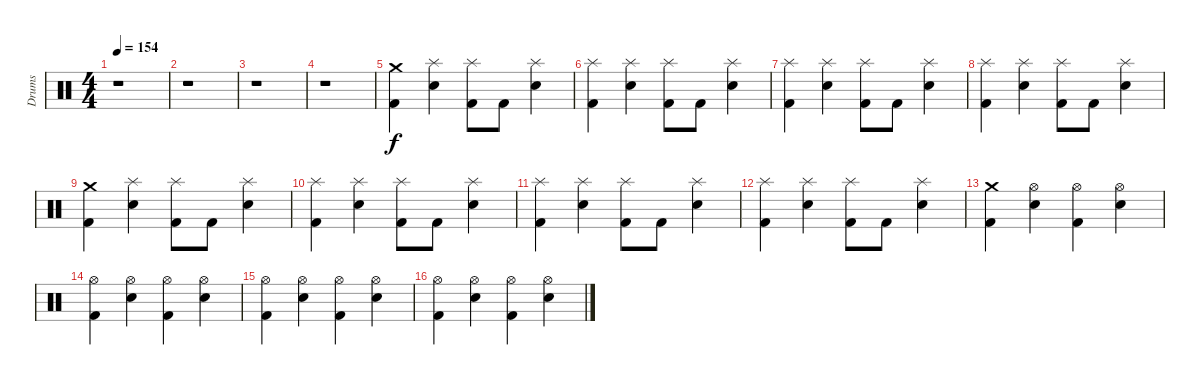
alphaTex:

\track ("Drums" "Drums") {instrument percussion}
\staff {score}
\articulation defaults
\ts (4 4)
\tempo 154
\clef neutral
\ks c
r.1{dy f} |
r.1 |
r.1 |
r.1 |
("Kick (hit) 2" "Crash medium (hit)").4 ("Splash (hit)" "Electric Snare (hit)").4 ("Kick (hit) 2" "Splash (hit)").8 "Kick (hit) 2".8 ("Splash (hit)" "Electric Snare (hit)").4 |
("Kick (hit) 2" "Splash (hit)").4 ("Splash (hit)" "Electric Snare (hit)").4 ("Kick (hit) 2" "Splash (hit)").8 "Kick (hit) 2".8 ("Splash (hit)" "Electric Snare (hit)").4 |
("Kick (hit) 2" "Splash (hit)").4 ("Electric Snare (hit)" "Splash (hit)").4 ("Kick (hit) 2" "Splash (hit)").8 "Kick (hit) 2".8 ("Electric Snare (hit)" "Splash (hit)").4 |
("Kick (hit) 2" "Splash (hit)").4 ("Electric Snare (hit)" "Splash (hit)").4 ("Kick (hit) 2" "Splash (hit)").8 "Kick (hit) 2".8 ("Electric Snare (hit)" "Splash (hit)").4 |
("Kick (hit) 2" "Crash medium (hit)").4 ("Splash (hit)" "Electric Snare (hit)").4 ("Kick (hit) 2" "Splash (hit)").8 "Kick (hit) 2".8 ("Splash (hit)" "Electric Snare (hit)").4 |
("Kick (hit) 2" "Splash (hit)").4 ("Splash (hit)" "Electric Snare (hit)").4 ("Kick (hit) 2" "Splash (hit)").8 "Kick (hit) 2".8 ("Splash (hit)" "Electric Snare (hit)").4 |
("Kick (hit) 2" "Splash (hit)").4 ("Electric Snare (hit)" "Splash (hit)").4 ("Kick (hit) 2" "Splash (hit)").8 "Kick (hit) 2".8 ("Electric Snare (hit)" "Splash (hit)").4 |
("Kick (hit) 2" "Splash (hit)").4 ("Electric Snare (hit)" "Splash (hit)").4 ("Kick (hit) 2" "Splash (hit)").8 "Kick (hit) 2".8 ("Electric Snare (hit)" "Splash (hit)").4 |
("Crash medium (hit)" "Kick (hit) 2").4 ("Hi-Hat (open)" "Electric Snare (hit)").4 ("Hi-Hat (open)" "Kick (hit) 2").4 ("Hi-Hat (open)" "Electric Snare (hit)").4 |
("Hi-Hat (open)" "Kick (hit) 2").4 ("Hi-Hat (open)" "Electric Snare (hit)").4 ("Hi-Hat (open)" "Kick (hit) 2").4 ("Hi-Hat (open)" "Electric Snare (hit)").4 |
("Kick (hit) 2" "Hi-Hat (open)").4 ("Electric Snare (hit)" "Hi-Hat (open)").4 ("Kick (hit) 2" "Hi-Hat (open)").4 ("Electric Snare (hit)" "Hi-Hat (open)").4 |
("Kick (hit) 2" "Hi-Hat (open)").4 ("Electric Snare (hit)" "Hi-Hat (open)").4 ("Kick (hit) 2" "Hi-Hat (open)").4 ("Electric Snare (hit)" "Hi-Hat (open)").4
